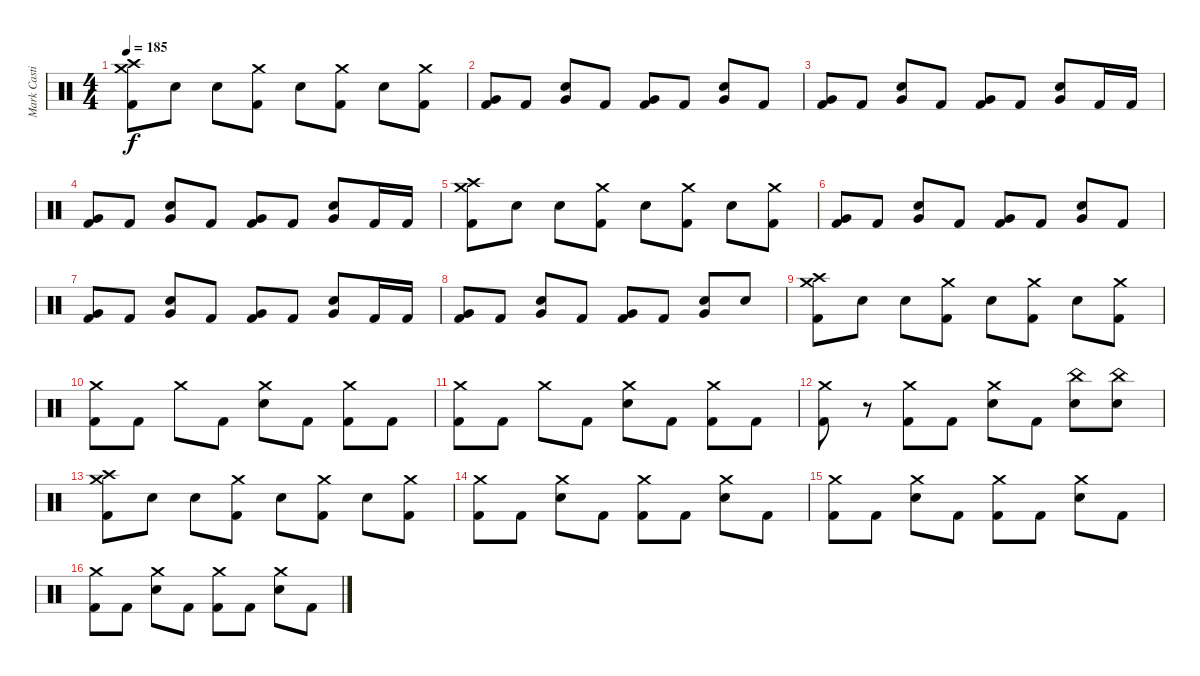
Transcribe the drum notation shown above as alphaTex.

\track ("Mark Castillo" "Mark Casti") {instrument percussion}
\staff {score}
\articulation defaults
\ts (4 4)
\tempo 185
\clef neutral
\ks c
("Kick (hit) 2" "Crash medium (hit)" "Crash high (hit)").8{dy f} "Electric Snare (hit)".8 "Electric Snare (hit)".8 ("Kick (hit) 2" "Crash medium (hit)").8 "Electric Snare (hit)".8 ("Kick (hit) 2" "Crash medium (hit)").8 "Electric Snare (hit)".8 ("Kick (hit) 2" "Crash medium (hit)").8 |
("Kick (hit) 2" "Very Low Tom (hit)").8 "Kick (hit) 2".8 ("Electric Snare (hit)" "Very Low Tom (hit)").8 "Kick (hit) 2".8 ("Kick (hit) 2" "Very Low Tom (hit)").8 "Kick (hit) 2".8 ("Electric Snare (hit)" "Very Low Tom (hit)").8 "Kick (hit) 2".8 |
("Kick (hit) 2" "Very Low Tom (hit)").8 "Kick (hit) 2".8 ("Electric Snare (hit)" "Very Low Tom (hit)").8 "Kick (hit) 2".8 ("Kick (hit) 2" "Very Low Tom (hit)").8 "Kick (hit) 2".8 ("Electric Snare (hit)" "Very Low Tom (hit)").8 "Kick (hit) 2".16 "Kick (hit) 2".16 |
("Kick (hit) 2" "Very Low Tom (hit)").8 "Kick (hit) 2".8 ("Electric Snare (hit)" "Very Low Tom (hit)").8 "Kick (hit) 2".8 ("Kick (hit) 2" "Very Low Tom (hit)").8 "Kick (hit) 2".8 ("Electric Snare (hit)" "Very Low Tom (hit)").8 "Kick (hit) 2".16 "Kick (hit) 2".16 |
("Kick (hit) 2" "Crash medium (hit)" "Crash high (hit)").8 "Electric Snare (hit)".8 "Electric Snare (hit)".8 ("Kick (hit) 2" "Crash medium (hit)").8 "Electric Snare (hit)".8 ("Kick (hit) 2" "Crash medium (hit)").8 "Electric Snare (hit)".8 ("Kick (hit) 2" "Crash medium (hit)").8 |
("Kick (hit) 2" "Very Low Tom (hit)").8 "Kick (hit) 2".8 ("Electric Snare (hit)" "Very Low Tom (hit)").8 "Kick (hit) 2".8 ("Kick (hit) 2" "Very Low Tom (hit)").8 "Kick (hit) 2".8 ("Electric Snare (hit)" "Very Low Tom (hit)").8 "Kick (hit) 2".8 |
("Kick (hit) 2" "Very Low Tom (hit)").8 "Kick (hit) 2".8 ("Electric Snare (hit)" "Very Low Tom (hit)").8 "Kick (hit) 2".8 ("Kick (hit) 2" "Very Low Tom (hit)").8 "Kick (hit) 2".8 ("Electric Snare (hit)" "Very Low Tom (hit)").8 "Kick (hit) 2".16 "Kick (hit) 2".16 |
("Kick (hit) 2" "Very Low Tom (hit)").8 "Kick (hit) 2".8 ("Electric Snare (hit)" "Very Low Tom (hit)").8 "Kick (hit) 2".8 ("Kick (hit) 2" "Very Low Tom (hit)").8 "Kick (hit) 2".8 ("Electric Snare (hit)" "Very Low Tom (hit)").8 "Electric Snare (hit)".8 |
("Kick (hit) 2" "Crash medium (hit)" "Crash high (hit)").8 "Electric Snare (hit)".8 "Electric Snare (hit)".8 ("Kick (hit) 2" "Crash medium (hit)").8 "Electric Snare (hit)".8 ("Kick (hit) 2" "Crash medium (hit)").8 "Electric Snare (hit)".8 ("Kick (hit) 2" "Crash medium (hit)").8 |
("Kick (hit) 2" "Crash medium (hit)").8 "Kick (hit) 2".8 "Crash medium (hit)".8 "Kick (hit) 2".8 ("Electric Snare (hit)" "Crash medium (hit)").8 "Kick (hit) 2".8 ("Kick (hit) 2" "Crash medium (hit)").8 "Kick (hit) 2".8 |
("Kick (hit) 2" "Crash medium (hit)").8 "Kick (hit) 2".8 "Crash medium (hit)".8 "Kick (hit) 2".8 ("Electric Snare (hit)" "Crash medium (hit)").8 "Kick (hit) 2".8 ("Kick (hit) 2" "Crash medium (hit)").8 "Kick (hit) 2".8 |
("Kick (hit) 2" "Crash medium (hit)").8 r.8 ("Kick (hit) 2" "Crash medium (hit)").8 "Kick (hit) 2".8 ("Electric Snare (hit)" "Crash medium (hit)").8 "Kick (hit) 2".8 ("Electric Snare (hit)" "China (hit)").8 ("Electric Snare (hit)" "China (hit)").8 |
("Kick (hit) 2" "Crash medium (hit)" "Crash high (hit)").8 "Electric Snare (hit)".8 "Electric Snare (hit)".8 ("Kick (hit) 2" "Crash medium (hit)").8 "Electric Snare (hit)".8 ("Kick (hit) 2" "Crash medium (hit)").8 "Electric Snare (hit)".8 ("Kick (hit) 2" "Crash medium (hit)").8 |
("Kick (hit) 2" "Crash medium (hit)").8 "Kick (hit) 2".8 ("Electric Snare (hit)" "Crash medium (hit)").8 "Kick (hit) 2".8 ("Kick (hit) 2" "Crash medium (hit)").8 "Kick (hit) 2".8 ("Electric Snare (hit)" "Crash medium (hit)").8 "Kick (hit) 2".8 |
("Kick (hit) 2" "Crash medium (hit)").8 "Kick (hit) 2".8 ("Electric Snare (hit)" "Crash medium (hit)").8 "Kick (hit) 2".8 ("Kick (hit) 2" "Crash medium (hit)").8 "Kick (hit) 2".8 ("Electric Snare (hit)" "Crash medium (hit)").8 "Kick (hit) 2".8 |
("Kick (hit) 2" "Crash medium (hit)").8 "Kick (hit) 2".8 ("Electric Snare (hit)" "Crash medium (hit)").8 "Kick (hit) 2".8 ("Kick (hit) 2" "Crash medium (hit)").8 "Kick (hit) 2".8 ("Electric Snare (hit)" "Crash medium (hit)").8 "Kick (hit) 2".8
